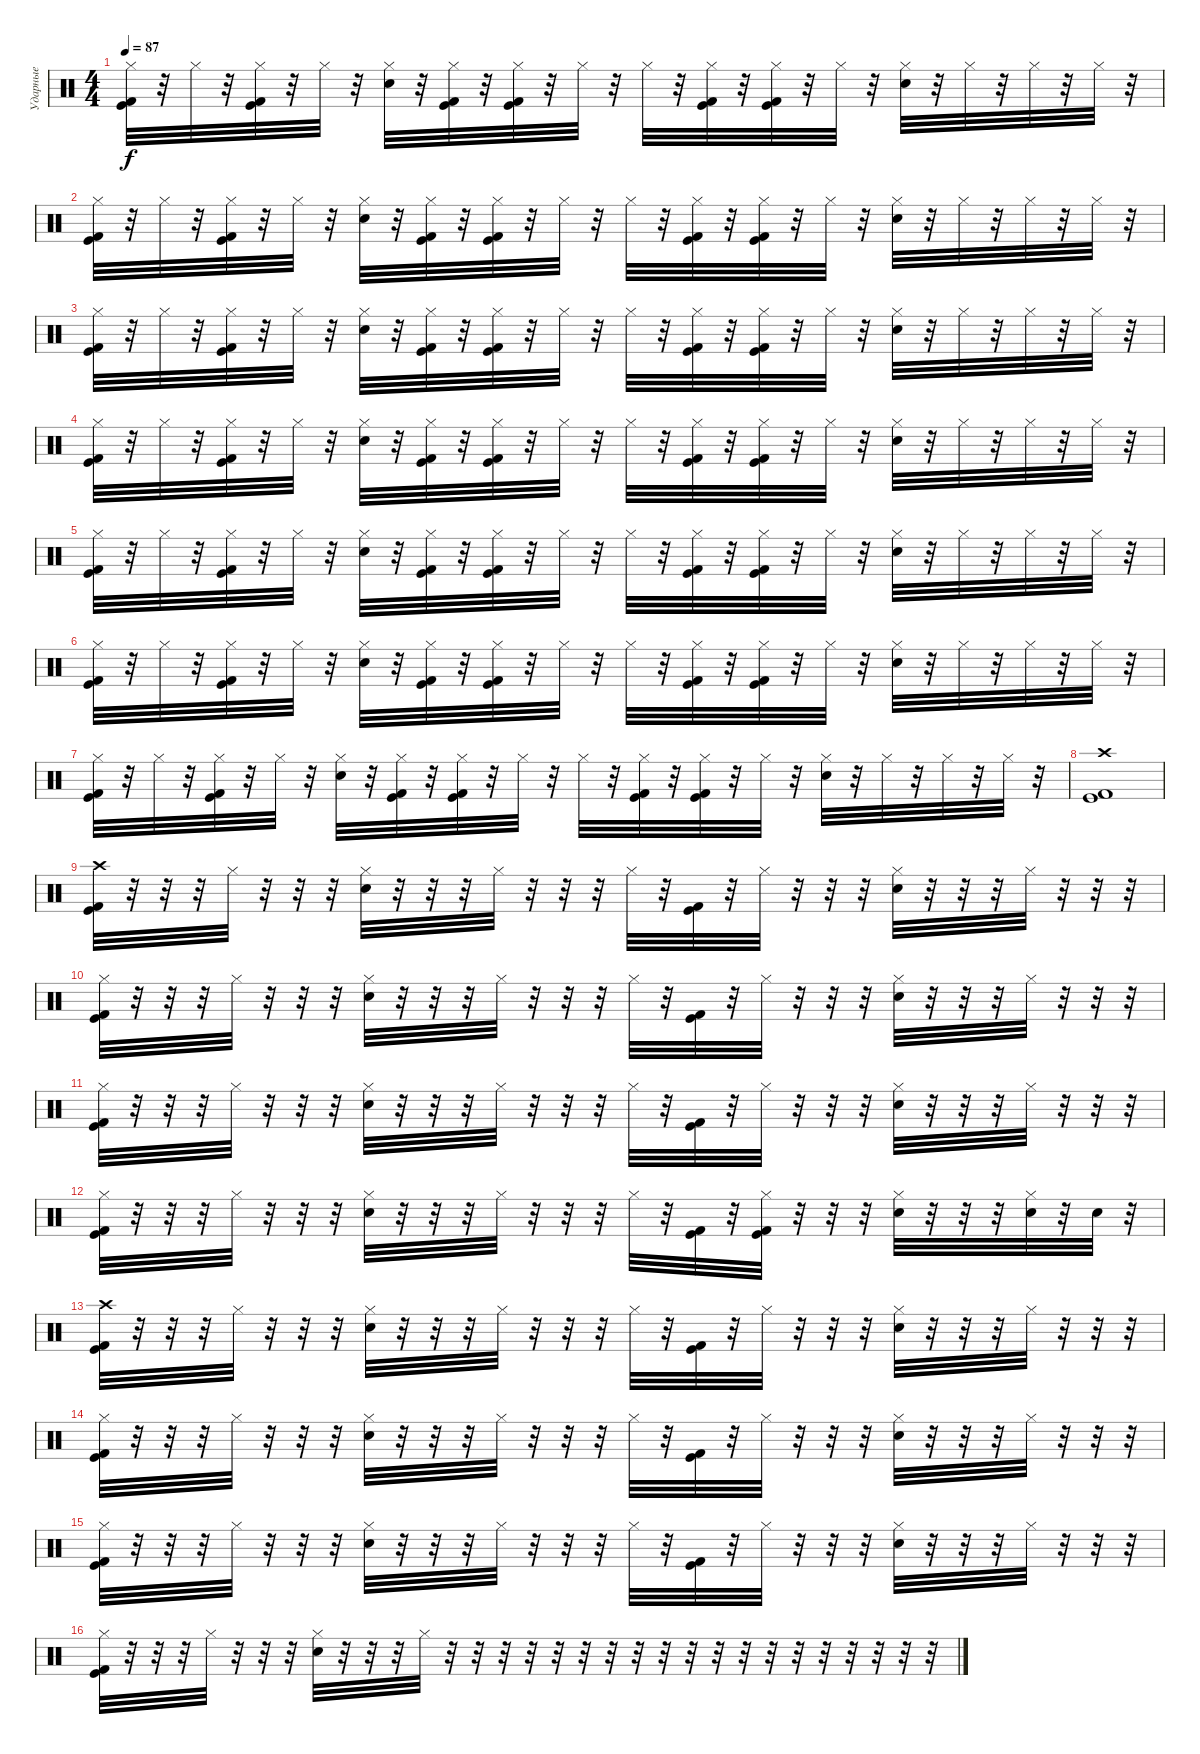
\track ("Ударные" "Ударные") {instrument percussion}
\staff {score}
\articulation defaults
\ts (4 4)
\tempo 87
\clef neutral
\ks c
("Hi-Hat (closed)" "Kick (hit) 2" "Kick (hit)").32{dy f} r.32 "Hi-Hat (closed)".32 r.32 ("Hi-Hat (closed)" "Kick (hit) 2" "Kick (hit)").32 r.32 "Hi-Hat (closed)".32 r.32 ("Hi-Hat (closed)" "Electric Snare (hit)").32 r.32 ("Hi-Hat (closed)" "Kick (hit) 2" "Kick (hit)").32 r.32 ("Hi-Hat (closed)" "Kick (hit) 2" "Kick (hit)").32 r.32 "Hi-Hat (closed)".32 r.32 "Hi-Hat (closed)".32 r.32 ("Hi-Hat (closed)" "Kick (hit) 2" "Kick (hit)").32 r.32 ("Hi-Hat (closed)" "Kick (hit) 2" "Kick (hit)").32 r.32 "Hi-Hat (closed)".32 r.32 ("Hi-Hat (closed)" "Electric Snare (hit)").32 r.32 "Hi-Hat (closed)".32 r.32 "Hi-Hat (closed)".32 r.32 "Hi-Hat (closed)".32 r.32 |
("Hi-Hat (closed)" "Kick (hit) 2" "Kick (hit)").32 r.32 "Hi-Hat (closed)".32 r.32 ("Hi-Hat (closed)" "Kick (hit) 2" "Kick (hit)").32 r.32 "Hi-Hat (closed)".32 r.32 ("Hi-Hat (closed)" "Electric Snare (hit)").32 r.32 ("Hi-Hat (closed)" "Kick (hit) 2" "Kick (hit)").32 r.32 ("Hi-Hat (closed)" "Kick (hit) 2" "Kick (hit)").32 r.32 "Hi-Hat (closed)".32 r.32 "Hi-Hat (closed)".32 r.32 ("Hi-Hat (closed)" "Kick (hit) 2" "Kick (hit)").32 r.32 ("Hi-Hat (closed)" "Kick (hit) 2" "Kick (hit)").32 r.32 "Hi-Hat (closed)".32 r.32 ("Hi-Hat (closed)" "Electric Snare (hit)").32 r.32 "Hi-Hat (closed)".32 r.32 "Hi-Hat (closed)".32 r.32 "Hi-Hat (closed)".32 r.32 |
("Hi-Hat (closed)" "Kick (hit) 2" "Kick (hit)").32 r.32 "Hi-Hat (closed)".32 r.32 ("Hi-Hat (closed)" "Kick (hit) 2" "Kick (hit)").32 r.32 "Hi-Hat (closed)".32 r.32 ("Hi-Hat (closed)" "Electric Snare (hit)").32 r.32 ("Hi-Hat (closed)" "Kick (hit) 2" "Kick (hit)").32 r.32 ("Hi-Hat (closed)" "Kick (hit) 2" "Kick (hit)").32 r.32 "Hi-Hat (closed)".32 r.32 "Hi-Hat (closed)".32 r.32 ("Hi-Hat (closed)" "Kick (hit) 2" "Kick (hit)").32 r.32 ("Hi-Hat (closed)" "Kick (hit) 2" "Kick (hit)").32 r.32 "Hi-Hat (closed)".32 r.32 ("Hi-Hat (closed)" "Electric Snare (hit)").32 r.32 "Hi-Hat (closed)".32 r.32 "Hi-Hat (closed)".32 r.32 "Hi-Hat (closed)".32 r.32 |
("Hi-Hat (closed)" "Kick (hit) 2" "Kick (hit)").32 r.32 "Hi-Hat (closed)".32 r.32 ("Hi-Hat (closed)" "Kick (hit) 2" "Kick (hit)").32 r.32 "Hi-Hat (closed)".32 r.32 ("Hi-Hat (closed)" "Electric Snare (hit)").32 r.32 ("Hi-Hat (closed)" "Kick (hit) 2" "Kick (hit)").32 r.32 ("Hi-Hat (closed)" "Kick (hit) 2" "Kick (hit)").32 r.32 "Hi-Hat (closed)".32 r.32 "Hi-Hat (closed)".32 r.32 ("Hi-Hat (closed)" "Kick (hit) 2" "Kick (hit)").32 r.32 ("Hi-Hat (closed)" "Kick (hit) 2" "Kick (hit)").32 r.32 "Hi-Hat (closed)".32 r.32 ("Hi-Hat (closed)" "Electric Snare (hit)").32 r.32 "Hi-Hat (closed)".32 r.32 "Hi-Hat (closed)".32 r.32 "Hi-Hat (closed)".32 r.32 |
("Hi-Hat (closed)" "Kick (hit) 2" "Kick (hit)").32 r.32 "Hi-Hat (closed)".32 r.32 ("Hi-Hat (closed)" "Kick (hit) 2" "Kick (hit)").32 r.32 "Hi-Hat (closed)".32 r.32 ("Hi-Hat (closed)" "Electric Snare (hit)").32 r.32 ("Hi-Hat (closed)" "Kick (hit) 2" "Kick (hit)").32 r.32 ("Hi-Hat (closed)" "Kick (hit) 2" "Kick (hit)").32 r.32 "Hi-Hat (closed)".32 r.32 "Hi-Hat (closed)".32 r.32 ("Hi-Hat (closed)" "Kick (hit) 2" "Kick (hit)").32 r.32 ("Hi-Hat (closed)" "Kick (hit) 2" "Kick (hit)").32 r.32 "Hi-Hat (closed)".32 r.32 ("Hi-Hat (closed)" "Electric Snare (hit)").32 r.32 "Hi-Hat (closed)".32 r.32 "Hi-Hat (closed)".32 r.32 "Hi-Hat (closed)".32 r.32 |
("Hi-Hat (closed)" "Kick (hit) 2" "Kick (hit)").32 r.32 "Hi-Hat (closed)".32 r.32 ("Hi-Hat (closed)" "Kick (hit) 2" "Kick (hit)").32 r.32 "Hi-Hat (closed)".32 r.32 ("Hi-Hat (closed)" "Electric Snare (hit)").32 r.32 ("Hi-Hat (closed)" "Kick (hit) 2" "Kick (hit)").32 r.32 ("Hi-Hat (closed)" "Kick (hit) 2" "Kick (hit)").32 r.32 "Hi-Hat (closed)".32 r.32 "Hi-Hat (closed)".32 r.32 ("Hi-Hat (closed)" "Kick (hit) 2" "Kick (hit)").32 r.32 ("Hi-Hat (closed)" "Kick (hit) 2" "Kick (hit)").32 r.32 "Hi-Hat (closed)".32 r.32 ("Hi-Hat (closed)" "Electric Snare (hit)").32 r.32 "Hi-Hat (closed)".32 r.32 "Hi-Hat (closed)".32 r.32 "Hi-Hat (closed)".32 r.32 |
("Hi-Hat (closed)" "Kick (hit) 2" "Kick (hit)").32 r.32 "Hi-Hat (closed)".32 r.32 ("Hi-Hat (closed)" "Kick (hit) 2" "Kick (hit)").32 r.32 "Hi-Hat (closed)".32 r.32 ("Hi-Hat (closed)" "Electric Snare (hit)").32 r.32 ("Hi-Hat (closed)" "Kick (hit) 2" "Kick (hit)").32 r.32 ("Hi-Hat (closed)" "Kick (hit) 2" "Kick (hit)").32 r.32 "Hi-Hat (closed)".32 r.32 "Hi-Hat (closed)".32 r.32 ("Hi-Hat (closed)" "Kick (hit) 2" "Kick (hit)").32 r.32 ("Hi-Hat (closed)" "Kick (hit) 2" "Kick (hit)").32 r.32 "Hi-Hat (closed)".32 r.32 ("Hi-Hat (closed)" "Electric Snare (hit)").32 r.32 "Hi-Hat (closed)".32 r.32 "Hi-Hat (closed)".32 r.32 "Hi-Hat (closed)".32 r.32 |
("Crash high (hit)" "Kick (hit) 2" "Kick (hit)").1 |
("Crash high (hit)" "Kick (hit) 2" "Kick (hit)").32 r.32 r.32 r.32 "Hi-Hat (closed)".32 r.32 r.32 r.32 ("Hi-Hat (closed)" "Electric Snare (hit)").32 r.32 r.32 r.32 "Hi-Hat (closed)".32 r.32 r.32 r.32 "Hi-Hat (closed)".32 r.32 ("Kick (hit) 2" "Kick (hit)").32 r.32 "Hi-Hat (closed)".32 r.32 r.32 r.32 ("Hi-Hat (closed)" "Electric Snare (hit)").32 r.32 r.32 r.32 "Hi-Hat (closed)".32 r.32 r.32 r.32 |
("Hi-Hat (closed)" "Kick (hit) 2" "Kick (hit)").32 r.32 r.32 r.32 "Hi-Hat (closed)".32 r.32 r.32 r.32 ("Hi-Hat (closed)" "Electric Snare (hit)").32 r.32 r.32 r.32 "Hi-Hat (closed)".32 r.32 r.32 r.32 "Hi-Hat (closed)".32 r.32 ("Kick (hit) 2" "Kick (hit)").32 r.32 "Hi-Hat (closed)".32 r.32 r.32 r.32 ("Hi-Hat (closed)" "Electric Snare (hit)").32 r.32 r.32 r.32 "Hi-Hat (closed)".32 r.32 r.32 r.32 |
("Hi-Hat (closed)" "Kick (hit) 2" "Kick (hit)").32 r.32 r.32 r.32 "Hi-Hat (closed)".32 r.32 r.32 r.32 ("Hi-Hat (closed)" "Electric Snare (hit)").32 r.32 r.32 r.32 "Hi-Hat (closed)".32 r.32 r.32 r.32 "Hi-Hat (closed)".32 r.32 ("Kick (hit) 2" "Kick (hit)").32 r.32 "Hi-Hat (closed)".32 r.32 r.32 r.32 ("Hi-Hat (closed)" "Electric Snare (hit)").32 r.32 r.32 r.32 "Hi-Hat (closed)".32 r.32 r.32 r.32 |
("Hi-Hat (closed)" "Kick (hit) 2" "Kick (hit)").32 r.32 r.32 r.32 "Hi-Hat (closed)".32 r.32 r.32 r.32 ("Hi-Hat (closed)" "Electric Snare (hit)").32 r.32 r.32 r.32 "Hi-Hat (closed)".32 r.32 r.32 r.32 "Hi-Hat (closed)".32 r.32 ("Kick (hit) 2" "Kick (hit)").32 r.32 ("Hi-Hat (closed)" "Kick (hit) 2" "Kick (hit)").32 r.32 r.32 r.32 ("Hi-Hat (closed)" "Electric Snare (hit)").32 r.32 r.32 r.32 ("Hi-Hat (closed)" "Electric Snare (hit)").32 r.32 "Electric Snare (hit)".32 r.32 |
("Crash high (hit)" "Kick (hit) 2" "Kick (hit)").32 r.32 r.32 r.32 "Hi-Hat (closed)".32 r.32 r.32 r.32 ("Hi-Hat (closed)" "Electric Snare (hit)").32 r.32 r.32 r.32 "Hi-Hat (closed)".32 r.32 r.32 r.32 "Hi-Hat (closed)".32 r.32 ("Kick (hit) 2" "Kick (hit)").32 r.32 "Hi-Hat (closed)".32 r.32 r.32 r.32 ("Hi-Hat (closed)" "Electric Snare (hit)").32 r.32 r.32 r.32 "Hi-Hat (closed)".32 r.32 r.32 r.32 |
("Hi-Hat (closed)" "Kick (hit) 2" "Kick (hit)").32 r.32 r.32 r.32 "Hi-Hat (closed)".32 r.32 r.32 r.32 ("Hi-Hat (closed)" "Electric Snare (hit)").32 r.32 r.32 r.32 "Hi-Hat (closed)".32 r.32 r.32 r.32 "Hi-Hat (closed)".32 r.32 ("Kick (hit) 2" "Kick (hit)").32 r.32 "Hi-Hat (closed)".32 r.32 r.32 r.32 ("Hi-Hat (closed)" "Electric Snare (hit)").32 r.32 r.32 r.32 "Hi-Hat (closed)".32 r.32 r.32 r.32 |
("Hi-Hat (closed)" "Kick (hit) 2" "Kick (hit)").32 r.32 r.32 r.32 "Hi-Hat (closed)".32 r.32 r.32 r.32 ("Hi-Hat (closed)" "Electric Snare (hit)").32 r.32 r.32 r.32 "Hi-Hat (closed)".32 r.32 r.32 r.32 "Hi-Hat (closed)".32 r.32 ("Kick (hit) 2" "Kick (hit)").32 r.32 "Hi-Hat (closed)".32 r.32 r.32 r.32 ("Hi-Hat (closed)" "Electric Snare (hit)").32 r.32 r.32 r.32 "Hi-Hat (closed)".32 r.32 r.32 r.32 |
("Hi-Hat (closed)" "Kick (hit) 2" "Kick (hit)").32 r.32 r.32 r.32 "Hi-Hat (closed)".32 r.32 r.32 r.32 ("Hi-Hat (closed)" "Electric Snare (hit)").32 r.32 r.32 r.32 "Hi-Hat (closed)".32 r.32 r.32 r.32 r.32 r.32 r.32 r.32 r.32 r.32 r.32 r.32 r.32 r.32 r.32 r.32 r.32 r.32 r.32 r.32
